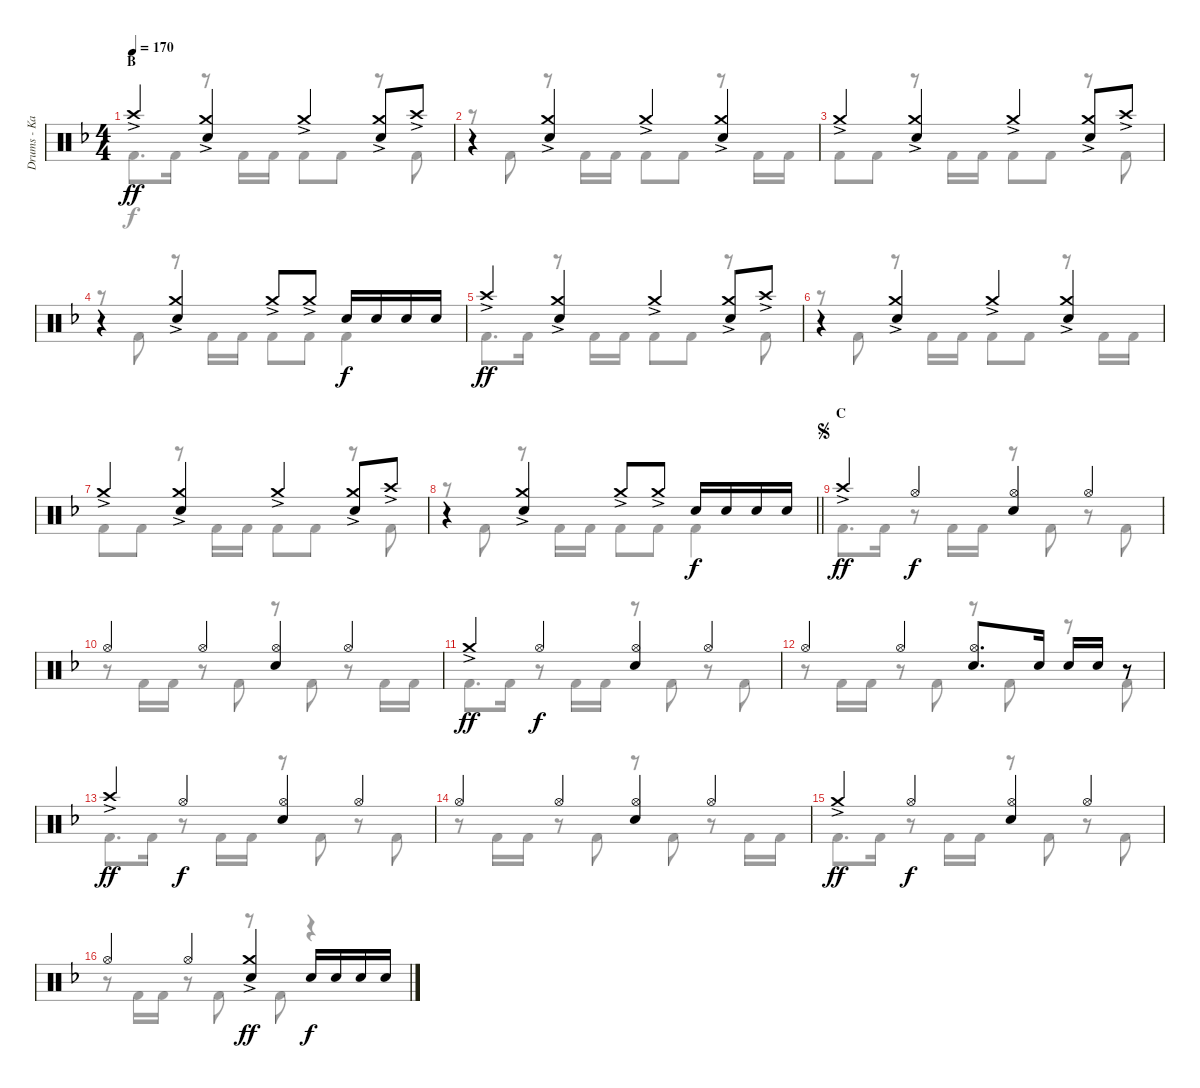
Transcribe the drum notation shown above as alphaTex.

\track ("Drums - Kai" "Drums - Ka") {instrument percussion}
\staff {score}
\articulation defaults
\voice
\ts (4 4)
\section ("" "B")
\tempo 170
\clef neutral
\ks f "Crash high (hit)"{ac}.4{dy ff}
("Crash medium (hit)"{ac} "Snare (hit) 2").4 "Crash medium (hit)"{ac}.4 ("Crash medium (hit)"{ac} "Snare (hit) 2").8 "Crash high (hit)"{ac}.8 |
r.4 ("Crash medium (hit)"{ac} "Snare (hit) 2").4 "Crash medium (hit)"{ac}.4 ("Crash medium (hit)"{ac} "Snare (hit) 2").4 |
"Crash medium (hit)"{ac}.4 ("Crash medium (hit)"{ac} "Snare (hit) 2").4 "Crash medium (hit)"{ac}.4 ("Crash medium (hit)"{ac} "Snare (hit) 2").8 "Crash high (hit)"{ac}.8 |
r.4 ("Crash medium (hit)"{ac} "Snare (hit) 2").4 "Crash medium (hit)"{ac}.8 "Crash medium (hit)"{ac}.8 "Snare (hit) 2".16{dy f} "Snare (hit) 2".16 "Snare (hit) 2".16 "Snare (hit) 2".16 |
"Crash high (hit)"{ac}.4{dy ff} ("Crash medium (hit)"{ac} "Snare (hit) 2").4 "Crash medium (hit)"{ac}.4 ("Crash medium (hit)"{ac} "Snare (hit) 2").8 "Crash high (hit)"{ac}.8 |
r.4 ("Crash medium (hit)"{ac} "Snare (hit) 2").4 "Crash medium (hit)"{ac}.4 ("Crash medium (hit)"{ac} "Snare (hit) 2").4 |
"Crash medium (hit)"{ac}.4 ("Crash medium (hit)"{ac} "Snare (hit) 2").4 "Crash medium (hit)"{ac}.4 ("Crash medium (hit)"{ac} "Snare (hit) 2").8 "Crash high (hit)"{ac}.8 |
\barLineRight lightlight
r.4 ("Crash medium (hit)"{ac} "Snare (hit) 2").4 "Crash medium (hit)"{ac}.8 "Crash medium (hit)"{ac}.8 "Snare (hit) 2".16{dy f} "Snare (hit) 2".16 "Snare (hit) 2".16 "Snare (hit) 2".16 |
\section ("" "C")
\jump segno "Crash high (hit)"{ac}.4{dy ff} "Hi-Hat (open)".4{dy f}
("Hi-Hat (open)" "Snare (hit) 2").4 "Hi-Hat (open)".4 |
"Hi-Hat (open)".4 "Hi-Hat (open)".4 ("Hi-Hat (open)" "Snare (hit) 2").4 "Hi-Hat (open)".4 |
"Crash medium (hit)"{ac}.4{dy ff} "Hi-Hat (open)".4{dy f} ("Hi-Hat (open)" "Snare (hit) 2").4 "Hi-Hat (open)".4 |
"Hi-Hat (open)".4 "Hi-Hat (open)".4 ("Hi-Hat (open)" "Snare (hit) 2").8{d} "Snare (hit) 2".16 "Snare (hit) 2".16 "Snare (hit) 2".16 r.8 |
"Crash high (hit)"{ac}.4{dy ff} "Hi-Hat (open)".4{dy f} ("Hi-Hat (open)" "Snare (hit) 2").4 "Hi-Hat (open)".4 |
"Hi-Hat (open)".4 "Hi-Hat (open)".4 ("Hi-Hat (open)" "Snare (hit) 2").4 "Hi-Hat (open)".4 |
"Crash medium (hit)"{ac}.4{dy ff} "Hi-Hat (open)".4{dy f} ("Hi-Hat (open)" "Snare (hit) 2").4 "Hi-Hat (open)".4 |
"Hi-Hat (open)".4 "Hi-Hat (open)".4 ("Crash medium (hit)"{ac} "Snare (hit) 2").4{dy ff} "Snare (hit) 2".16{dy f} "Snare (hit) 2".16 "Snare (hit) 2".16 "Snare (hit) 2".16
\voice
\clef neutral
\ottava regular
\simile none
\ks f "Kick (hit) 2".8{d dy f} "Kick (hit) 2".16
r.8 "Kick (hit) 2".16 "Kick (hit) 2".16 "Kick (hit) 2".8 "Kick (hit) 2".8 r.8 "Kick (hit) 2".8 |
r.8 "Kick (hit) 2".8 r.8 "Kick (hit) 2".16 "Kick (hit) 2".16 "Kick (hit) 2".8 "Kick (hit) 2".8 r.8 "Kick (hit) 2".16 "Kick (hit) 2".16 |
"Kick (hit) 2".8 "Kick (hit) 2".8 r.8 "Kick (hit) 2".16 "Kick (hit) 2".16 "Kick (hit) 2".8 "Kick (hit) 2".8 r.8 "Kick (hit) 2".8 |
r.8 "Kick (hit) 2".8 r.8 "Kick (hit) 2".16 "Kick (hit) 2".16 "Kick (hit) 2".8 "Kick (hit) 2".8 "Kick (hit) 2".4 |
"Kick (hit) 2".8{d} "Kick (hit) 2".16 r.8 "Kick (hit) 2".16 "Kick (hit) 2".16 "Kick (hit) 2".8 "Kick (hit) 2".8 r.8 "Kick (hit) 2".8 |
r.8 "Kick (hit) 2".8 r.8 "Kick (hit) 2".16 "Kick (hit) 2".16 "Kick (hit) 2".8 "Kick (hit) 2".8 r.8 "Kick (hit) 2".16 "Kick (hit) 2".16 |
"Kick (hit) 2".8 "Kick (hit) 2".8 r.8 "Kick (hit) 2".16 "Kick (hit) 2".16 "Kick (hit) 2".8 "Kick (hit) 2".8 r.8 "Kick (hit) 2".8 |
\barLineRight lightlight
r.8 "Kick (hit) 2".8 r.8 "Kick (hit) 2".16 "Kick (hit) 2".16 "Kick (hit) 2".8 "Kick (hit) 2".8 "Kick (hit) 2".4 |
"Kick (hit) 2".8{d} "Kick (hit) 2".16 r.8 "Kick (hit) 2".16 "Kick (hit) 2".16 r.8 "Kick (hit) 2".8 r.8 "Kick (hit) 2".8 |
r.8 "Kick (hit) 2".16 "Kick (hit) 2".16 r.8 "Kick (hit) 2".8 r.8 "Kick (hit) 2".8 r.8 "Kick (hit) 2".16 "Kick (hit) 2".16 |
"Kick (hit) 2".8{d} "Kick (hit) 2".16 r.8 "Kick (hit) 2".16 "Kick (hit) 2".16 r.8 "Kick (hit) 2".8 r.8 "Kick (hit) 2".8 |
r.8 "Kick (hit) 2".16 "Kick (hit) 2".16 r.8 "Kick (hit) 2".8 r.8 "Kick (hit) 2".8 r.8 "Kick (hit) 2".8 |
"Kick (hit) 2".8{d} "Kick (hit) 2".16 r.8 "Kick (hit) 2".16 "Kick (hit) 2".16 r.8 "Kick (hit) 2".8 r.8 "Kick (hit) 2".8 |
r.8 "Kick (hit) 2".16 "Kick (hit) 2".16 r.8 "Kick (hit) 2".8 r.8 "Kick (hit) 2".8 r.8 "Kick (hit) 2".16 "Kick (hit) 2".16 |
"Kick (hit) 2".8{d} "Kick (hit) 2".16 r.8 "Kick (hit) 2".16 "Kick (hit) 2".16 r.8 "Kick (hit) 2".8 r.8 "Kick (hit) 2".8 |
r.8 "Kick (hit) 2".16 "Kick (hit) 2".16 r.8 "Kick (hit) 2".8 r.8 "Kick (hit) 2".8 r.4
